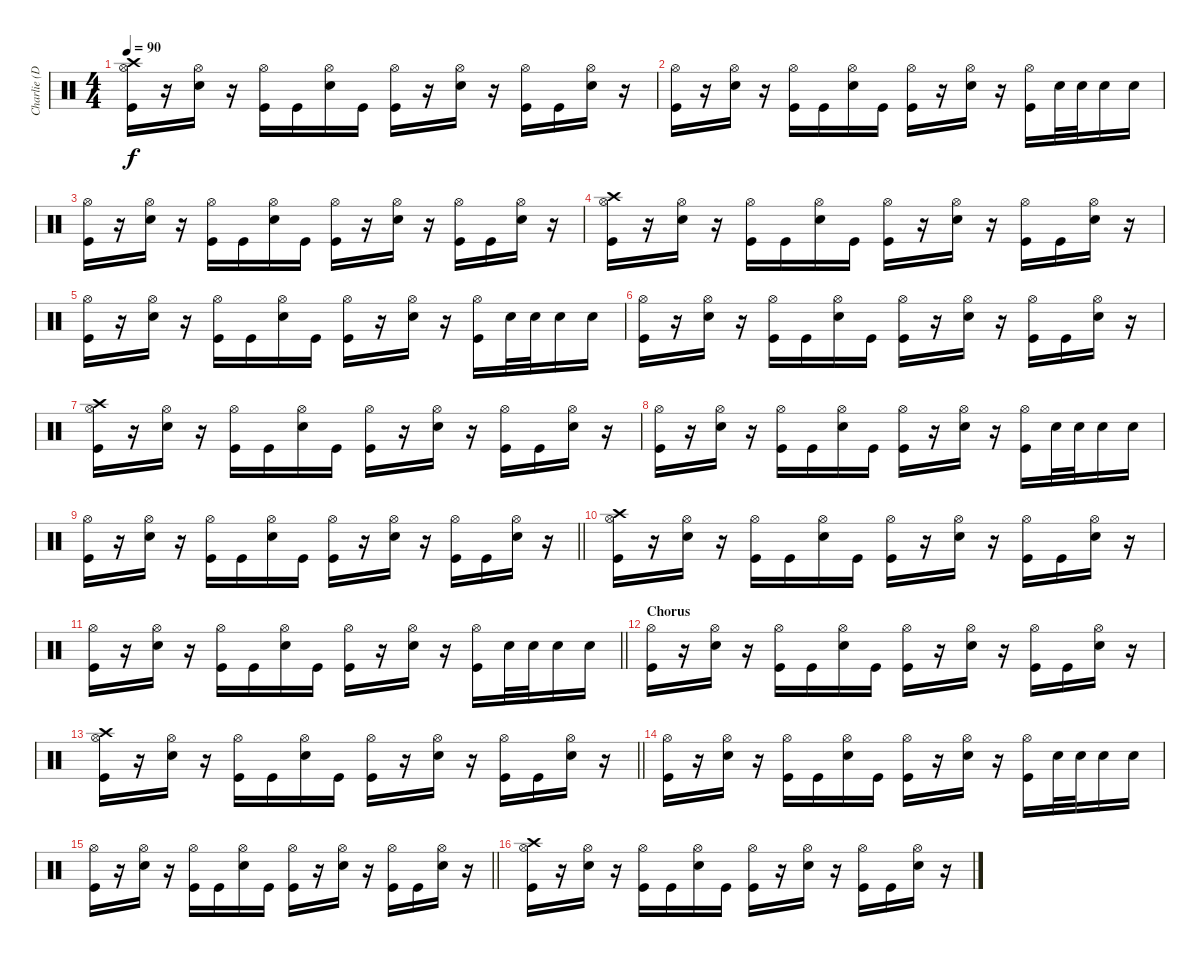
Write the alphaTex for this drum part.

\track ("Charlie (Drums)" "Charlie (D") {instrument percussion}
\staff {score}
\articulation defaults
\ts (4 4)
\tempo 90
\clef neutral
\ks c
("Crash high (hit)" "Hi-Hat (open)" "Kick (hit)").16{dy f} r.16 ("Hi-Hat (open)" "Electric Snare (hit)").16 r.16 ("Hi-Hat (open)" "Kick (hit)").16 "Kick (hit)".16 ("Hi-Hat (open)" "Electric Snare (hit)").16 "Kick (hit)".16 ("Hi-Hat (open)" "Kick (hit)").16 r.16 ("Hi-Hat (open)" "Electric Snare (hit)").16 r.16 ("Hi-Hat (open)" "Kick (hit)").16 "Kick (hit)".16 ("Hi-Hat (open)" "Electric Snare (hit)").16 r.16 |
("Hi-Hat (open)" "Kick (hit)").16 r.16 ("Hi-Hat (open)" "Electric Snare (hit)").16 r.16 ("Hi-Hat (open)" "Kick (hit)").16 "Kick (hit)".16 ("Hi-Hat (open)" "Electric Snare (hit)").16 "Kick (hit)".16 ("Hi-Hat (open)" "Kick (hit)").16 r.16 ("Hi-Hat (open)" "Electric Snare (hit)").16 r.16 ("Hi-Hat (open)" "Kick (hit)").16 "Electric Snare (hit)".32 "Electric Snare (hit)".32 "Electric Snare (hit)".16 "Electric Snare (hit)".16 |
("Hi-Hat (open)" "Kick (hit)").16 r.16 ("Hi-Hat (open)" "Electric Snare (hit)").16 r.16 ("Hi-Hat (open)" "Kick (hit)").16 "Kick (hit)".16 ("Hi-Hat (open)" "Electric Snare (hit)").16 "Kick (hit)".16 ("Hi-Hat (open)" "Kick (hit)").16 r.16 ("Hi-Hat (open)" "Electric Snare (hit)").16 r.16 ("Hi-Hat (open)" "Kick (hit)").16 "Kick (hit)".16 ("Hi-Hat (open)" "Electric Snare (hit)").16 r.16 |
("Crash high (hit)" "Hi-Hat (open)" "Kick (hit)").16 r.16 ("Hi-Hat (open)" "Electric Snare (hit)").16 r.16 ("Hi-Hat (open)" "Kick (hit)").16 "Kick (hit)".16 ("Hi-Hat (open)" "Electric Snare (hit)").16 "Kick (hit)".16 ("Hi-Hat (open)" "Kick (hit)").16 r.16 ("Hi-Hat (open)" "Electric Snare (hit)").16 r.16 ("Hi-Hat (open)" "Kick (hit)").16 "Kick (hit)".16 ("Hi-Hat (open)" "Electric Snare (hit)").16 r.16 |
("Hi-Hat (open)" "Kick (hit)").16 r.16 ("Hi-Hat (open)" "Electric Snare (hit)").16 r.16 ("Hi-Hat (open)" "Kick (hit)").16 "Kick (hit)".16 ("Hi-Hat (open)" "Electric Snare (hit)").16 "Kick (hit)".16 ("Hi-Hat (open)" "Kick (hit)").16 r.16 ("Hi-Hat (open)" "Electric Snare (hit)").16 r.16 ("Hi-Hat (open)" "Kick (hit)").16 "Electric Snare (hit)".32 "Electric Snare (hit)".32 "Electric Snare (hit)".16 "Electric Snare (hit)".16 |
("Hi-Hat (open)" "Kick (hit)").16 r.16 ("Hi-Hat (open)" "Electric Snare (hit)").16 r.16 ("Hi-Hat (open)" "Kick (hit)").16 "Kick (hit)".16 ("Hi-Hat (open)" "Electric Snare (hit)").16 "Kick (hit)".16 ("Hi-Hat (open)" "Kick (hit)").16 r.16 ("Hi-Hat (open)" "Electric Snare (hit)").16 r.16 ("Hi-Hat (open)" "Kick (hit)").16 "Kick (hit)".16 ("Hi-Hat (open)" "Electric Snare (hit)").16 r.16 |
("Crash high (hit)" "Hi-Hat (open)" "Kick (hit)").16 r.16 ("Hi-Hat (open)" "Electric Snare (hit)").16 r.16 ("Hi-Hat (open)" "Kick (hit)").16 "Kick (hit)".16 ("Hi-Hat (open)" "Electric Snare (hit)").16 "Kick (hit)".16 ("Hi-Hat (open)" "Kick (hit)").16 r.16 ("Hi-Hat (open)" "Electric Snare (hit)").16 r.16 ("Hi-Hat (open)" "Kick (hit)").16 "Kick (hit)".16 ("Hi-Hat (open)" "Electric Snare (hit)").16 r.16 |
("Hi-Hat (open)" "Kick (hit)").16 r.16 ("Hi-Hat (open)" "Electric Snare (hit)").16 r.16 ("Hi-Hat (open)" "Kick (hit)").16 "Kick (hit)".16 ("Hi-Hat (open)" "Electric Snare (hit)").16 "Kick (hit)".16 ("Hi-Hat (open)" "Kick (hit)").16 r.16 ("Hi-Hat (open)" "Electric Snare (hit)").16 r.16 ("Hi-Hat (open)" "Kick (hit)").16 "Electric Snare (hit)".32 "Electric Snare (hit)".32 "Electric Snare (hit)".16 "Electric Snare (hit)".16 |
\barLineRight lightlight
("Hi-Hat (open)" "Kick (hit)").16 r.16 ("Hi-Hat (open)" "Electric Snare (hit)").16 r.16 ("Hi-Hat (open)" "Kick (hit)").16 "Kick (hit)".16 ("Hi-Hat (open)" "Electric Snare (hit)").16 "Kick (hit)".16 ("Hi-Hat (open)" "Kick (hit)").16 r.16 ("Hi-Hat (open)" "Electric Snare (hit)").16 r.16 ("Hi-Hat (open)" "Kick (hit)").16 "Kick (hit)".16 ("Hi-Hat (open)" "Electric Snare (hit)").16 r.16 |
("Crash high (hit)" "Hi-Hat (open)" "Kick (hit)").16 r.16 ("Hi-Hat (open)" "Electric Snare (hit)").16 r.16 ("Hi-Hat (open)" "Kick (hit)").16 "Kick (hit)".16 ("Hi-Hat (open)" "Electric Snare (hit)").16 "Kick (hit)".16 ("Hi-Hat (open)" "Kick (hit)").16 r.16 ("Hi-Hat (open)" "Electric Snare (hit)").16 r.16 ("Hi-Hat (open)" "Kick (hit)").16 "Kick (hit)".16 ("Hi-Hat (open)" "Electric Snare (hit)").16 r.16 |
\barLineRight lightlight
("Hi-Hat (open)" "Kick (hit)").16 r.16 ("Hi-Hat (open)" "Electric Snare (hit)").16 r.16 ("Hi-Hat (open)" "Kick (hit)").16 "Kick (hit)".16 ("Hi-Hat (open)" "Electric Snare (hit)").16 "Kick (hit)".16 ("Hi-Hat (open)" "Kick (hit)").16 r.16 ("Hi-Hat (open)" "Electric Snare (hit)").16 r.16 ("Hi-Hat (open)" "Kick (hit)").16 "Electric Snare (hit)".32 "Electric Snare (hit)".32 "Electric Snare (hit)".16 "Electric Snare (hit)".16 |
\section ("" "Chorus")
("Hi-Hat (open)" "Kick (hit)").16 r.16 ("Hi-Hat (open)" "Electric Snare (hit)").16 r.16 ("Hi-Hat (open)" "Kick (hit)").16 "Kick (hit)".16 ("Hi-Hat (open)" "Electric Snare (hit)").16 "Kick (hit)".16 ("Hi-Hat (open)" "Kick (hit)").16 r.16 ("Hi-Hat (open)" "Electric Snare (hit)").16 r.16 ("Hi-Hat (open)" "Kick (hit)").16 "Kick (hit)".16 ("Hi-Hat (open)" "Electric Snare (hit)").16 r.16 |
\barLineRight lightlight
("Crash high (hit)" "Hi-Hat (open)" "Kick (hit)").16 r.16 ("Hi-Hat (open)" "Electric Snare (hit)").16 r.16 ("Hi-Hat (open)" "Kick (hit)").16 "Kick (hit)".16 ("Hi-Hat (open)" "Electric Snare (hit)").16 "Kick (hit)".16 ("Hi-Hat (open)" "Kick (hit)").16 r.16 ("Hi-Hat (open)" "Electric Snare (hit)").16 r.16 ("Hi-Hat (open)" "Kick (hit)").16 "Kick (hit)".16 ("Hi-Hat (open)" "Electric Snare (hit)").16 r.16 |
("Hi-Hat (open)" "Kick (hit)").16 r.16 ("Hi-Hat (open)" "Electric Snare (hit)").16 r.16 ("Hi-Hat (open)" "Kick (hit)").16 "Kick (hit)".16 ("Hi-Hat (open)" "Electric Snare (hit)").16 "Kick (hit)".16 ("Hi-Hat (open)" "Kick (hit)").16 r.16 ("Hi-Hat (open)" "Electric Snare (hit)").16 r.16 ("Hi-Hat (open)" "Kick (hit)").16 "Electric Snare (hit)".32 "Electric Snare (hit)".32 "Electric Snare (hit)".16 "Electric Snare (hit)".16 |
\barLineRight lightlight
("Hi-Hat (open)" "Kick (hit)").16 r.16 ("Hi-Hat (open)" "Electric Snare (hit)").16 r.16 ("Hi-Hat (open)" "Kick (hit)").16 "Kick (hit)".16 ("Hi-Hat (open)" "Electric Snare (hit)").16 "Kick (hit)".16 ("Hi-Hat (open)" "Kick (hit)").16 r.16 ("Hi-Hat (open)" "Electric Snare (hit)").16 r.16 ("Hi-Hat (open)" "Kick (hit)").16 "Kick (hit)".16 ("Hi-Hat (open)" "Electric Snare (hit)").16 r.16 |
("Crash high (hit)" "Hi-Hat (open)" "Kick (hit)").16 r.16 ("Hi-Hat (open)" "Electric Snare (hit)").16 r.16 ("Hi-Hat (open)" "Kick (hit)").16 "Kick (hit)".16 ("Hi-Hat (open)" "Electric Snare (hit)").16 "Kick (hit)".16 ("Hi-Hat (open)" "Kick (hit)").16 r.16 ("Hi-Hat (open)" "Electric Snare (hit)").16 r.16 ("Hi-Hat (open)" "Kick (hit)").16 "Kick (hit)".16 ("Hi-Hat (open)" "Electric Snare (hit)").16 r.16
